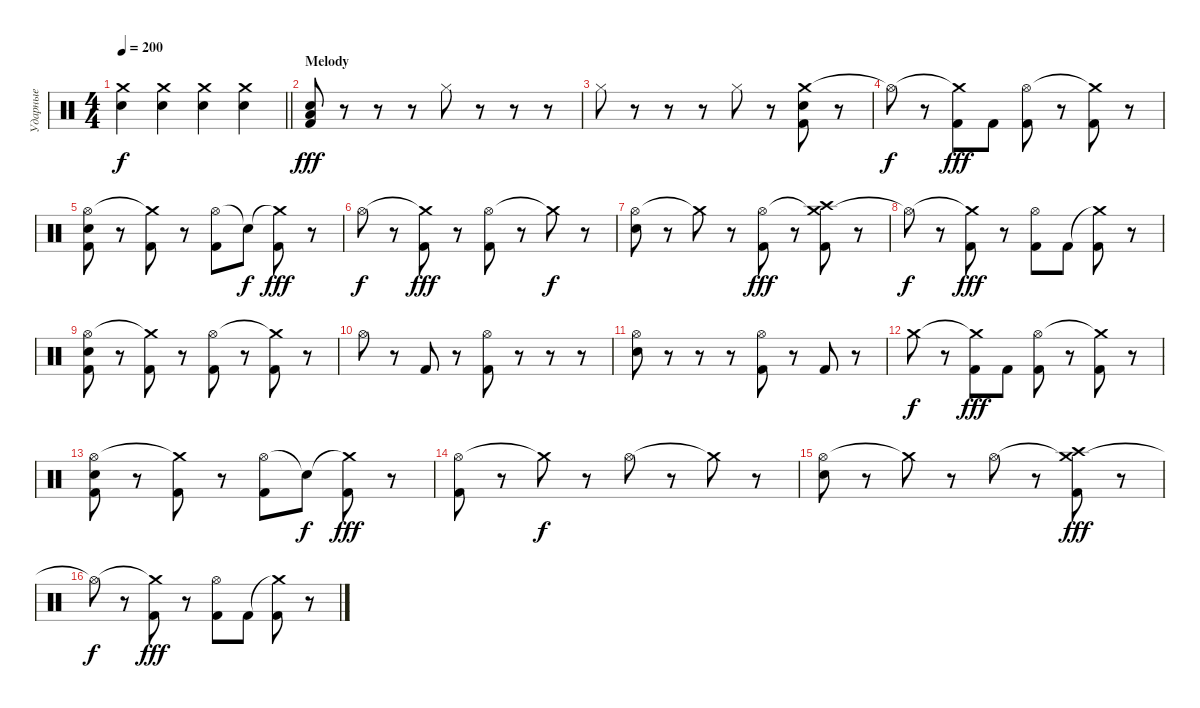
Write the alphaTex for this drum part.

\track ("Ударные" "Ударные") {instrument percussion}
\staff {score}
\articulation defaults
\ts (4 4)
\tempo 200
\clef neutral
\barLineRight lightlight
\ks c
("Crash medium (hit)" "Electric Snare (hit)").4{dy f} ("Crash medium (hit)" "Electric Snare (hit)").4 ("Crash medium (hit)" "Electric Snare (hit)").4 ("Crash medium (hit)" "Electric Snare (hit)").4 |
\section ("" "Melody")
("Electric Snare (hit)" "Low Floor Tom (hit)" "Kick (hit) 2").8{dy fff} r.8 r.8 r.8 "Hi-Hat (closed)".8 r.8 r.8 r.8 |
"Hi-Hat (closed)".8 r.8 r.8 r.8 "Hi-Hat (closed)".8 r.8 ("Crash medium (hit)" "Electric Snare (hit)" "Kick (hit) 2").8 r.8 |
"Hi-Hat (open)"{t}.8{dy f} r.8 ("Crash medium (hit)"{t} "Kick (hit) 2").8{dy fff} "Kick (hit) 2".8 ("Hi-Hat (open)" "Kick (hit) 2").8 r.8 ("Crash medium (hit)"{t} "Kick (hit) 2").8 r.8 |
("Hi-Hat (open)" "Electric Snare (hit)" "Kick (hit) 2").8 r.8 ("Crash medium (hit)"{t} "Kick (hit) 2").8 r.8 ("Hi-Hat (open)" "Kick (hit) 2").8 "Snare (hit)"{t}.8{dy f} ("Crash medium (hit)"{t} "Kick (hit) 2").8{dy fff} r.8 |
"Hi-Hat (open)".8{dy f} r.8 ("Crash medium (hit)"{t} "Kick (hit) 2").8{dy fff} r.8 ("Hi-Hat (open)" "Kick (hit) 2").8 r.8 "Crash medium (hit)"{t}.8{dy f} r.8 |
("Hi-Hat (open)" "Electric Snare (hit)").8 r.8 "Crash medium (hit)"{t}.8 r.8 ("Hi-Hat (open)" "Kick (hit) 2").8{dy fff} r.8 ("Crash medium (hit)"{t} "Crash high (hit)" "Kick (hit) 2").8 r.8 |
"Hi-Hat (open)"{t}.8{dy f} r.8 ("Crash medium (hit)"{t} "Kick (hit) 2").8{dy fff} r.8 ("Hi-Hat (open)" "Kick (hit) 2").8 "Kick (hit) 2".8 ("Crash medium (hit)"{t} "Kick (hit) 2").8 r.8 |
("Hi-Hat (open)" "Electric Snare (hit)" "Kick (hit) 2").8 r.8 ("Crash medium (hit)"{t} "Kick (hit) 2").8 r.8 ("Hi-Hat (open)" "Kick (hit) 2").8 r.8 ("Crash medium (hit)"{t} "Kick (hit) 2").8 r.8 |
"Hi-Hat (open)".8 r.8 "Kick (hit) 2".8 r.8 ("Hi-Hat (open)" "Kick (hit) 2").8 r.8 r.8 r.8 |
("Hi-Hat (open)" "Electric Snare (hit)").8 r.8 r.8 r.8 ("Hi-Hat (open)" "Kick (hit) 2").8 r.8 "Kick (hit) 2".8 r.8 |
"Crash medium (hit)".8{dy f} r.8 ("Crash medium (hit)"{t} "Kick (hit) 2").8{dy fff} "Kick (hit) 2".8 ("Hi-Hat (open)" "Kick (hit) 2").8 r.8 ("Crash medium (hit)"{t} "Kick (hit) 2").8 r.8 |
("Hi-Hat (open)" "Electric Snare (hit)" "Kick (hit) 2").8 r.8 ("Crash medium (hit)"{t} "Kick (hit) 2").8 r.8 ("Hi-Hat (open)" "Kick (hit) 2").8 "Snare (hit)"{t}.8{dy f} ("Crash medium (hit)"{t} "Kick (hit) 2").8{dy fff} r.8 |
("Hi-Hat (open)" "Kick (hit) 2").8 r.8 "Crash medium (hit)"{t}.8{dy f} r.8 "Hi-Hat (open)".8 r.8 "Crash medium (hit)"{t}.8 r.8 |
("Hi-Hat (open)" "Electric Snare (hit)").8 r.8 "Crash medium (hit)"{t}.8 r.8 "Hi-Hat (open)".8 r.8 ("Crash medium (hit)"{t} "Crash high (hit)" "Kick (hit) 2").8{dy fff} r.8 |
"Hi-Hat (open)"{t}.8{dy f} r.8 ("Crash medium (hit)"{t} "Kick (hit) 2").8{dy fff} r.8 ("Hi-Hat (open)" "Kick (hit) 2").8 "Kick (hit) 2".8 ("Crash medium (hit)"{t} "Kick (hit) 2").8 r.8
